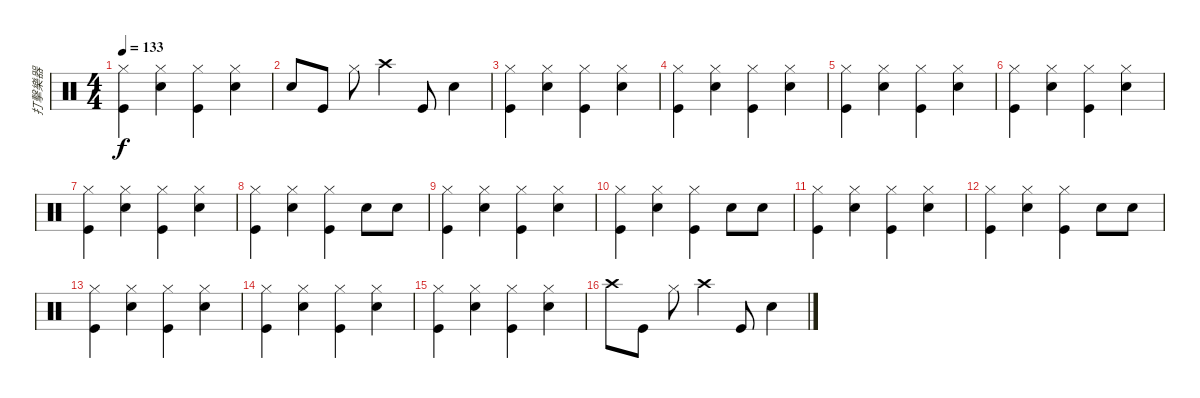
\track ("打擊樂器" "打擊樂器") {instrument percussion}
\staff {score}
\articulation defaults
\ts (4 4)
\tempo 133
\clef neutral
\ks c
("Hi-Hat (closed)" "Kick (hit)").4{dy f} ("Hi-Hat (closed)" "Snare (hit) 2").4 ("Hi-Hat (closed)" "Kick (hit)").4 ("Hi-Hat (closed)" "Snare (hit) 2").4 |
"Snare (hit) 2".8 "Kick (hit)".8 "Hi-Hat (closed)".8 "Crash high (hit)".4 "Kick (hit)".8 "Snare (hit) 2".4 |
("Hi-Hat (closed)" "Kick (hit)").4 ("Hi-Hat (closed)" "Snare (hit) 2").4 ("Hi-Hat (closed)" "Kick (hit)").4 ("Hi-Hat (closed)" "Snare (hit) 2").4 |
("Hi-Hat (closed)" "Kick (hit)").4 ("Hi-Hat (closed)" "Snare (hit) 2").4 ("Hi-Hat (closed)" "Kick (hit)").4 ("Hi-Hat (closed)" "Snare (hit) 2").4 |
("Hi-Hat (closed)" "Kick (hit)").4 ("Hi-Hat (closed)" "Snare (hit) 2").4 ("Hi-Hat (closed)" "Kick (hit)").4 ("Hi-Hat (closed)" "Snare (hit) 2").4 |
("Hi-Hat (closed)" "Kick (hit)").4 ("Hi-Hat (closed)" "Snare (hit) 2").4 ("Hi-Hat (closed)" "Kick (hit)").4 ("Hi-Hat (closed)" "Snare (hit) 2").4 |
("Hi-Hat (closed)" "Kick (hit)").4 ("Hi-Hat (closed)" "Snare (hit) 2").4 ("Hi-Hat (closed)" "Kick (hit)").4 ("Hi-Hat (closed)" "Snare (hit) 2").4 |
("Hi-Hat (closed)" "Kick (hit)").4 ("Hi-Hat (closed)" "Snare (hit) 2").4 ("Hi-Hat (closed)" "Kick (hit)").4 "Snare (hit) 2".8 "Snare (hit) 2".8 |
("Hi-Hat (closed)" "Kick (hit)").4 ("Hi-Hat (closed)" "Snare (hit) 2").4 ("Hi-Hat (closed)" "Kick (hit)").4 ("Hi-Hat (closed)" "Snare (hit) 2").4 |
("Hi-Hat (closed)" "Kick (hit)").4 ("Hi-Hat (closed)" "Snare (hit) 2").4 ("Hi-Hat (closed)" "Kick (hit)").4 "Snare (hit) 2".8 "Snare (hit) 2".8 |
("Hi-Hat (closed)" "Kick (hit)").4 ("Hi-Hat (closed)" "Snare (hit) 2").4 ("Hi-Hat (closed)" "Kick (hit)").4 ("Hi-Hat (closed)" "Snare (hit) 2").4 |
("Hi-Hat (closed)" "Kick (hit)").4 ("Hi-Hat (closed)" "Snare (hit) 2").4 ("Hi-Hat (closed)" "Kick (hit)").4 "Snare (hit) 2".8 "Snare (hit) 2".8 |
("Hi-Hat (closed)" "Kick (hit)").4 ("Hi-Hat (closed)" "Snare (hit) 2").4 ("Hi-Hat (closed)" "Kick (hit)").4 ("Hi-Hat (closed)" "Snare (hit) 2").4 |
("Hi-Hat (closed)" "Kick (hit)").4 ("Hi-Hat (closed)" "Snare (hit) 2").4 ("Hi-Hat (closed)" "Kick (hit)").4 ("Hi-Hat (closed)" "Snare (hit) 2").4 |
("Hi-Hat (closed)" "Kick (hit)").4 ("Hi-Hat (closed)" "Snare (hit) 2").4 ("Hi-Hat (closed)" "Kick (hit)").4 ("Hi-Hat (closed)" "Snare (hit) 2").4 |
"Crash high (hit)".8 "Kick (hit)".8 "Hi-Hat (closed)".8 "Crash high (hit)".4 "Kick (hit)".8 "Snare (hit) 2".4
